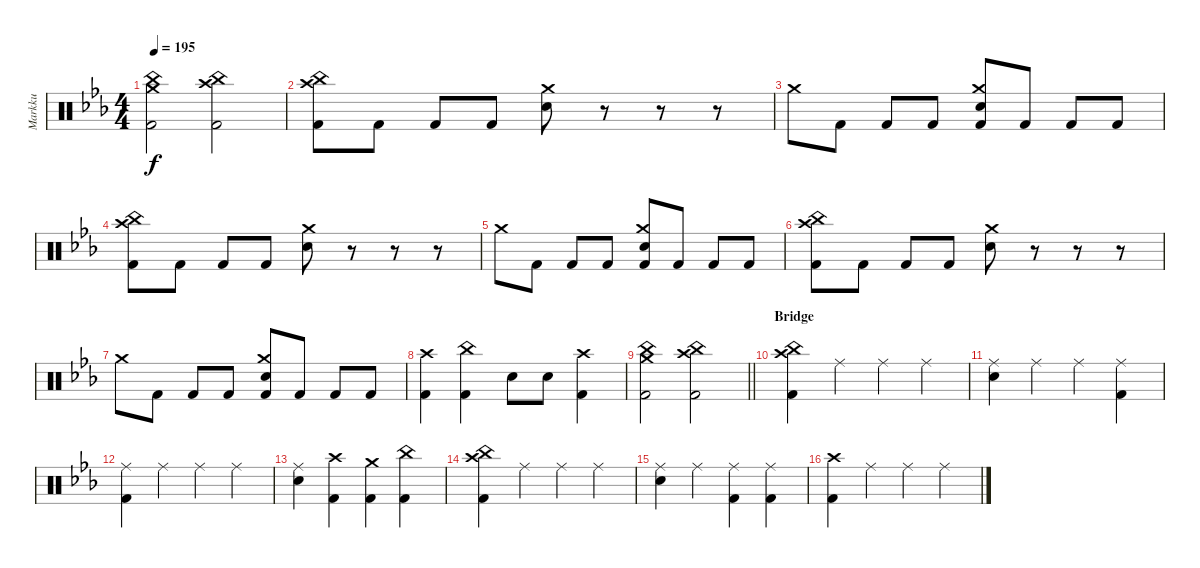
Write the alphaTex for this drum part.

\track ("Markku" "Markku") {instrument percussion}
\staff {score}
\articulation defaults
\ts (4 4)
\tempo 195
\clef neutral
\ks cminor
("China (hit)" "Kick (hit) 2" "Crash medium (hit)").2{dy f} ("China (hit)" "Kick (hit) 2" "Crash high (hit)").2 |
("Kick (hit) 2" "Crash high (hit)" "China (hit)").8 "Kick (hit) 2".8 "Kick (hit) 2".8 "Kick (hit) 2".8 ("Snare (hit) 2" "Crash medium (hit)").8 r.8 r.8 r.8 |
"Crash medium (hit)".8 "Kick (hit) 2".8 "Kick (hit) 2".8 "Kick (hit) 2".8 ("Kick (hit) 2" "Crash medium (hit)" "Snare (hit) 2").8 "Kick (hit) 2".8 "Kick (hit) 2".8 "Kick (hit) 2".8 |
("Kick (hit) 2" "Crash high (hit)" "China (hit)").8 "Kick (hit) 2".8 "Kick (hit) 2".8 "Kick (hit) 2".8 ("Snare (hit) 2" "Crash medium (hit)").8 r.8 r.8 r.8 |
"Crash medium (hit)".8 "Kick (hit) 2".8 "Kick (hit) 2".8 "Kick (hit) 2".8 ("Kick (hit) 2" "Crash medium (hit)" "Snare (hit) 2").8 "Kick (hit) 2".8 "Kick (hit) 2".8 "Kick (hit) 2".8 |
("Kick (hit) 2" "Crash high (hit)" "China (hit)").8 "Kick (hit) 2".8 "Kick (hit) 2".8 "Kick (hit) 2".8 ("Snare (hit) 2" "Crash medium (hit)").8 r.8 r.8 r.8 |
"Crash medium (hit)".8 "Kick (hit) 2".8 "Kick (hit) 2".8 "Kick (hit) 2".8 ("Kick (hit) 2" "Crash medium (hit)" "Snare (hit) 2").8 "Kick (hit) 2".8 "Kick (hit) 2".8 "Kick (hit) 2".8 |
("Kick (hit) 2" "Crash high (hit)").4 ("Kick (hit) 2" "China (hit)").4 "Snare (hit) 2".8 "Snare (hit) 2".8 ("Kick (hit) 2" "Crash high (hit)").4 |
\barLineRight lightlight
("China (hit)" "Kick (hit) 2" "Crash medium (hit)").2 ("China (hit)" "Kick (hit) 2" "Crash high (hit)").2 |
\section ("" "Bridge")
("Kick (hit) 2" "Crash high (hit)" "China (hit)").4 "Ride (middle)".4 "Ride (middle)".4 "Ride (middle)".4 |
("Ride (middle)" "Snare (hit) 2").4 "Ride (middle)".4 "Ride (middle)".4 ("Ride (middle)" "Kick (hit) 2").4 |
("Ride (middle)" "Kick (hit) 2").4 "Ride (middle)".4 "Ride (middle)".4 "Ride (middle)".4 |
("Ride (middle)" "Snare (hit) 2").4 ("Crash high (hit)" "Kick (hit) 2").4 ("Crash medium (hit)" "Kick (hit) 2").4 ("China (hit)" "Kick (hit) 2").4 |
("Kick (hit) 2" "Crash high (hit)" "China (hit)").4 "Ride (middle)".4 "Ride (middle)".4 "Ride (middle)".4 |
("Ride (middle)" "Snare (hit) 2").4 "Ride (middle)".4 ("Ride (middle)" "Kick (hit) 2").4 ("Ride (middle)" "Kick (hit) 2").4 |
("Kick (hit) 2" "Crash high (hit)").4 "Ride (middle)".4 "Ride (middle)".4 "Ride (middle)".4
